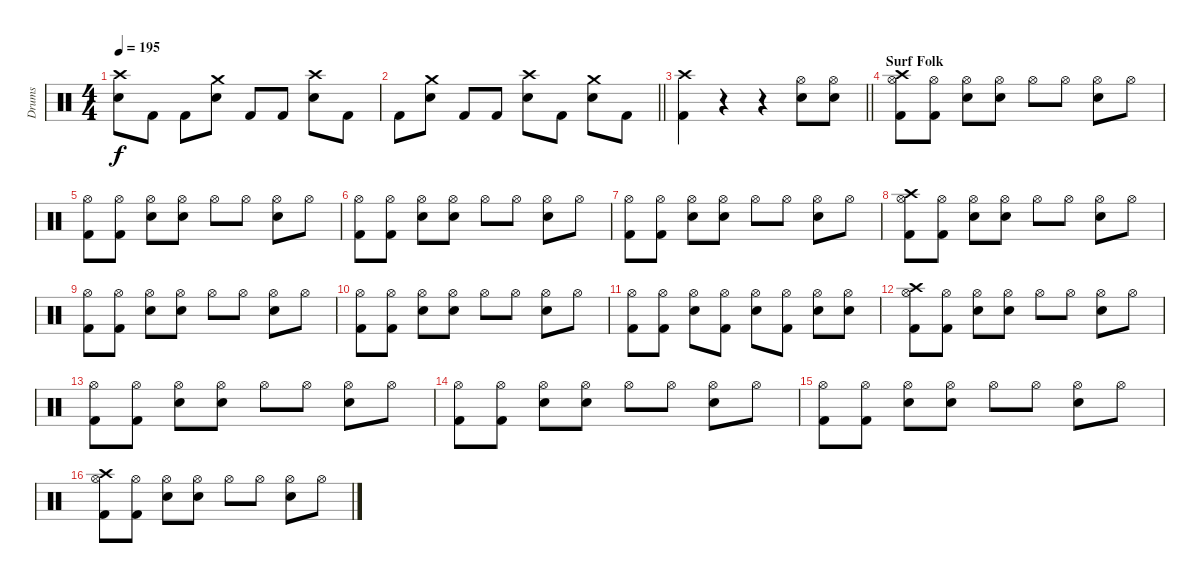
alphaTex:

\track ("Drums" "Drums") {instrument percussion}
\staff {score}
\articulation defaults
\ts (4 4)
\tempo 195
\clef neutral
\ks c
("Crash high (hit)" "Snare (hit) 2").8{dy f} "Kick (hit) 2".8 "Kick (hit) 2".8 ("Crash medium (hit)" "Snare (hit) 2").8 "Kick (hit) 2".8 "Kick (hit) 2".8 ("Crash high (hit)" "Snare (hit) 2").8 "Kick (hit) 2".8 |
\barLineRight lightlight "Kick (hit) 2".8
("Crash medium (hit)" "Snare (hit) 2").8 "Kick (hit) 2".8 "Kick (hit) 2".8 ("Crash high (hit)" "Snare (hit) 2").8 "Kick (hit) 2".8 ("Crash medium (hit)" "Snare (hit) 2").8 "Kick (hit) 2".8 |
\barLineRight lightlight
("Crash high (hit)" "Kick (hit) 2").4 r.4 r.4 ("Hi-Hat (open)" "Snare (hit) 2").8 ("Hi-Hat (open)" "Snare (hit) 2").8 |
\section ("" "Surf Folk")
("Crash high (hit)" "Hi-Hat (open)" "Kick (hit) 2").8 ("Hi-Hat (open)" "Kick (hit) 2").8 ("Hi-Hat (open)" "Snare (hit) 2").8 ("Hi-Hat (open)" "Snare (hit) 2").8 "Hi-Hat (open)".8 "Hi-Hat (open)".8 ("Hi-Hat (open)" "Snare (hit) 2").8 "Hi-Hat (open)".8 |
("Hi-Hat (open)" "Kick (hit) 2").8 ("Hi-Hat (open)" "Kick (hit) 2").8 ("Hi-Hat (open)" "Snare (hit) 2").8 ("Hi-Hat (open)" "Snare (hit) 2").8 "Hi-Hat (open)".8 "Hi-Hat (open)".8 ("Hi-Hat (open)" "Snare (hit) 2").8 "Hi-Hat (open)".8 |
("Hi-Hat (open)" "Kick (hit) 2").8 ("Hi-Hat (open)" "Kick (hit) 2").8 ("Hi-Hat (open)" "Snare (hit) 2").8 ("Hi-Hat (open)" "Snare (hit) 2").8 "Hi-Hat (open)".8 "Hi-Hat (open)".8 ("Hi-Hat (open)" "Snare (hit) 2").8 "Hi-Hat (open)".8 |
("Hi-Hat (open)" "Kick (hit) 2").8 ("Hi-Hat (open)" "Kick (hit) 2").8 ("Hi-Hat (open)" "Snare (hit) 2").8 ("Hi-Hat (open)" "Snare (hit) 2").8 "Hi-Hat (open)".8 "Hi-Hat (open)".8 ("Hi-Hat (open)" "Snare (hit) 2").8 "Hi-Hat (open)".8 |
("Crash high (hit)" "Hi-Hat (open)" "Kick (hit) 2").8 ("Hi-Hat (open)" "Kick (hit) 2").8 ("Hi-Hat (open)" "Snare (hit) 2").8 ("Hi-Hat (open)" "Snare (hit) 2").8 "Hi-Hat (open)".8 "Hi-Hat (open)".8 ("Hi-Hat (open)" "Snare (hit) 2").8 "Hi-Hat (open)".8 |
("Hi-Hat (open)" "Kick (hit) 2").8 ("Hi-Hat (open)" "Kick (hit) 2").8 ("Hi-Hat (open)" "Snare (hit) 2").8 ("Hi-Hat (open)" "Snare (hit) 2").8 "Hi-Hat (open)".8 "Hi-Hat (open)".8 ("Hi-Hat (open)" "Snare (hit) 2").8 "Hi-Hat (open)".8 |
("Hi-Hat (open)" "Kick (hit) 2").8 ("Hi-Hat (open)" "Kick (hit) 2").8 ("Hi-Hat (open)" "Snare (hit) 2").8 ("Hi-Hat (open)" "Snare (hit) 2").8 "Hi-Hat (open)".8 "Hi-Hat (open)".8 ("Hi-Hat (open)" "Snare (hit) 2").8 "Hi-Hat (open)".8 |
("Hi-Hat (open)" "Kick (hit) 2").8 ("Hi-Hat (open)" "Kick (hit) 2").8 ("Hi-Hat (open)" "Snare (hit) 2").8 ("Hi-Hat (open)" "Kick (hit) 2").8 ("Hi-Hat (open)" "Snare (hit) 2").8 ("Hi-Hat (open)" "Kick (hit) 2").8 ("Hi-Hat (open)" "Snare (hit) 2").8 ("Hi-Hat (open)" "Snare (hit) 2").8 |
("Crash high (hit)" "Hi-Hat (open)" "Kick (hit) 2").8 ("Hi-Hat (open)" "Kick (hit) 2").8 ("Hi-Hat (open)" "Snare (hit) 2").8 ("Hi-Hat (open)" "Snare (hit) 2").8 "Hi-Hat (open)".8 "Hi-Hat (open)".8 ("Hi-Hat (open)" "Snare (hit) 2").8 "Hi-Hat (open)".8 |
("Hi-Hat (open)" "Kick (hit) 2").8 ("Hi-Hat (open)" "Kick (hit) 2").8 ("Hi-Hat (open)" "Snare (hit) 2").8 ("Hi-Hat (open)" "Snare (hit) 2").8 "Hi-Hat (open)".8 "Hi-Hat (open)".8 ("Hi-Hat (open)" "Snare (hit) 2").8 "Hi-Hat (open)".8 |
("Hi-Hat (open)" "Kick (hit) 2").8 ("Hi-Hat (open)" "Kick (hit) 2").8 ("Hi-Hat (open)" "Snare (hit) 2").8 ("Hi-Hat (open)" "Snare (hit) 2").8 "Hi-Hat (open)".8 "Hi-Hat (open)".8 ("Hi-Hat (open)" "Snare (hit) 2").8 "Hi-Hat (open)".8 |
("Hi-Hat (open)" "Kick (hit) 2").8 ("Hi-Hat (open)" "Kick (hit) 2").8 ("Hi-Hat (open)" "Snare (hit) 2").8 ("Hi-Hat (open)" "Snare (hit) 2").8 "Hi-Hat (open)".8 "Hi-Hat (open)".8 ("Hi-Hat (open)" "Snare (hit) 2").8 "Hi-Hat (open)".8 |
("Crash high (hit)" "Hi-Hat (open)" "Kick (hit) 2").8 ("Hi-Hat (open)" "Kick (hit) 2").8 ("Hi-Hat (open)" "Snare (hit) 2").8 ("Hi-Hat (open)" "Snare (hit) 2").8 "Hi-Hat (open)".8 "Hi-Hat (open)".8 ("Hi-Hat (open)" "Snare (hit) 2").8 "Hi-Hat (open)".8
